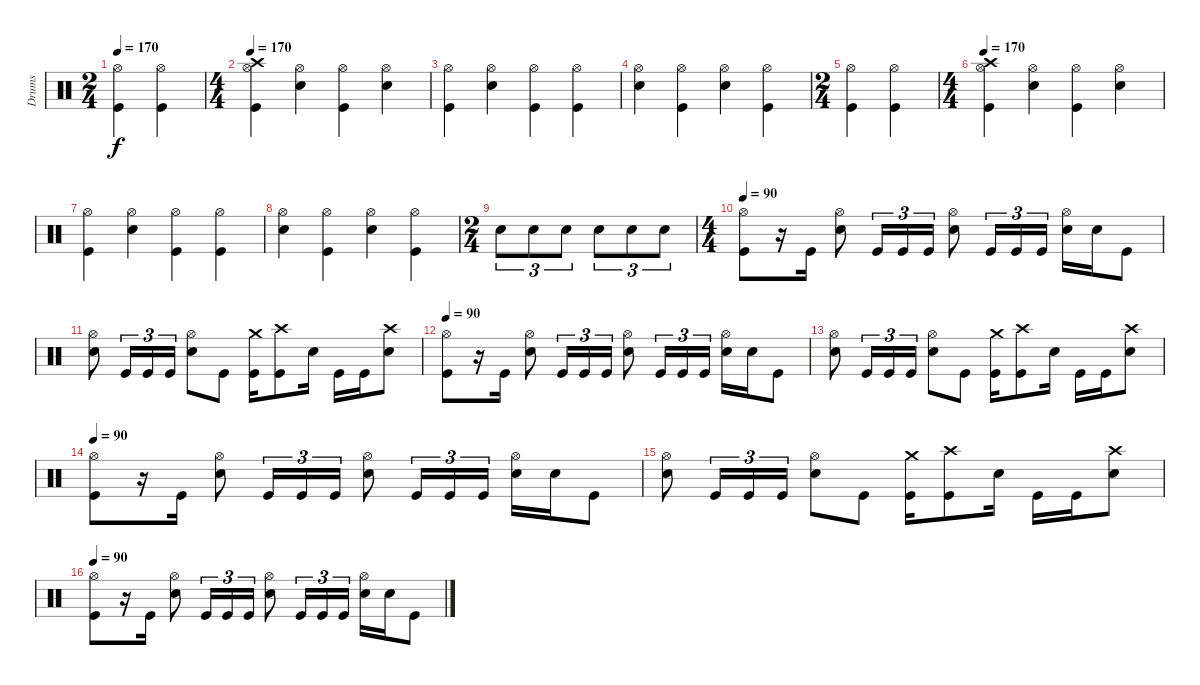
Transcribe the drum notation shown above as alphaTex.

\track ("Drums" "Drums") {instrument percussion}
\staff {score}
\articulation defaults
\ts (2 4)
\tempo 170
\clef neutral
\ks c
("Kick (hit)" "Hi-Hat (open)").4{dy f} ("Kick (hit)" "Hi-Hat (open)").4 |
\ts (4 4)
\tempo 170
("Kick (hit)" "Hi-Hat (open)" "Crash high (hit)").4 ("Snare (hit) 2" "Hi-Hat (open)").4 ("Kick (hit)" "Hi-Hat (open)").4 ("Snare (hit) 2" "Hi-Hat (open)").4 |
("Kick (hit)" "Hi-Hat (open)").4 ("Snare (hit) 2" "Hi-Hat (open)").4 ("Kick (hit)" "Hi-Hat (open)").4 ("Kick (hit)" "Hi-Hat (open)").4 |
("Snare (hit) 2" "Hi-Hat (open)").4 ("Kick (hit)" "Hi-Hat (open)").4 ("Snare (hit) 2" "Hi-Hat (open)").4 ("Kick (hit)" "Hi-Hat (open)").4 |
\ts (2 4)
("Kick (hit)" "Hi-Hat (open)").4 ("Kick (hit)" "Hi-Hat (open)").4 |
\ts (4 4)
\tempo 170
("Kick (hit)" "Hi-Hat (open)" "Crash high (hit)").4 ("Snare (hit) 2" "Hi-Hat (open)").4 ("Kick (hit)" "Hi-Hat (open)").4 ("Snare (hit) 2" "Hi-Hat (open)").4 |
("Kick (hit)" "Hi-Hat (open)").4 ("Snare (hit) 2" "Hi-Hat (open)").4 ("Kick (hit)" "Hi-Hat (open)").4 ("Kick (hit)" "Hi-Hat (open)").4 |
("Snare (hit) 2" "Hi-Hat (open)").4 ("Kick (hit)" "Hi-Hat (open)").4 ("Snare (hit) 2" "Hi-Hat (open)").4 ("Kick (hit)" "Hi-Hat (open)").4 |
\ts (2 4)
"Snare (hit) 2".8{tu (3 2)} "Snare (hit) 2".8{tu (3 2)} "Snare (hit) 2".8{tu (3 2)} "Snare (hit) 2".8{tu (3 2)} "Snare (hit) 2".8{tu (3 2)} "Snare (hit) 2".8{tu (3 2)} |
\ts (4 4)
\tempo 90
("Kick (hit)" "Hi-Hat (open)").8 r.16 "Kick (hit)".16 ("Snare (hit) 2" "Hi-Hat (open)").8 "Kick (hit)".16{tu (3 2)} "Kick (hit)".16{tu (3 2)} "Kick (hit)".16{tu (3 2)} ("Snare (hit) 2" "Hi-Hat (open)").8 "Kick (hit)".16{tu (3 2)} "Kick (hit)".16{tu (3 2)} "Kick (hit)".16{tu (3 2)} ("Snare (hit) 2" "Hi-Hat (open)").16 "Snare (hit) 2".16 "Kick (hit)".8 |
("Snare (hit) 2" "Hi-Hat (open)").8 "Kick (hit)".16{tu (3 2)} "Kick (hit)".16{tu (3 2)} "Kick (hit)".16{tu (3 2)} ("Snare (hit) 2" "Hi-Hat (open)").8 "Kick (hit)".8 ("Kick (hit)" "Crash medium (hit)").16 ("Kick (hit)" "Crash high (hit)").8 "Snare (hit) 2".16 "Kick (hit)".16 "Kick (hit)".16 ("Snare (hit) 2" "Crash high (hit)").8 |
\tempo 90
("Kick (hit)" "Hi-Hat (open)").8 r.16 "Kick (hit)".16 ("Snare (hit) 2" "Hi-Hat (open)").8 "Kick (hit)".16{tu (3 2)} "Kick (hit)".16{tu (3 2)} "Kick (hit)".16{tu (3 2)} ("Snare (hit) 2" "Hi-Hat (open)").8 "Kick (hit)".16{tu (3 2)} "Kick (hit)".16{tu (3 2)} "Kick (hit)".16{tu (3 2)} ("Snare (hit) 2" "Hi-Hat (open)").16 "Snare (hit) 2".16 "Kick (hit)".8 |
("Snare (hit) 2" "Hi-Hat (open)").8 "Kick (hit)".16{tu (3 2)} "Kick (hit)".16{tu (3 2)} "Kick (hit)".16{tu (3 2)} ("Snare (hit) 2" "Hi-Hat (open)").8 "Kick (hit)".8 ("Kick (hit)" "Crash medium (hit)").16 ("Kick (hit)" "Crash high (hit)").8 "Snare (hit) 2".16 "Kick (hit)".16 "Kick (hit)".16 ("Snare (hit) 2" "Crash high (hit)").8 |
\tempo 90
("Kick (hit)" "Hi-Hat (open)").8 r.16 "Kick (hit)".16 ("Snare (hit) 2" "Hi-Hat (open)").8 "Kick (hit)".16{tu (3 2)} "Kick (hit)".16{tu (3 2)} "Kick (hit)".16{tu (3 2)} ("Snare (hit) 2" "Hi-Hat (open)").8 "Kick (hit)".16{tu (3 2)} "Kick (hit)".16{tu (3 2)} "Kick (hit)".16{tu (3 2)} ("Snare (hit) 2" "Hi-Hat (open)").16 "Snare (hit) 2".16 "Kick (hit)".8 |
("Snare (hit) 2" "Hi-Hat (open)").8 "Kick (hit)".16{tu (3 2)} "Kick (hit)".16{tu (3 2)} "Kick (hit)".16{tu (3 2)} ("Snare (hit) 2" "Hi-Hat (open)").8 "Kick (hit)".8 ("Kick (hit)" "Crash medium (hit)").16 ("Kick (hit)" "Crash high (hit)").8 "Snare (hit) 2".16 "Kick (hit)".16 "Kick (hit)".16 ("Snare (hit) 2" "Crash high (hit)").8 |
\tempo 90
("Kick (hit)" "Hi-Hat (open)").8 r.16 "Kick (hit)".16 ("Snare (hit) 2" "Hi-Hat (open)").8 "Kick (hit)".16{tu (3 2)} "Kick (hit)".16{tu (3 2)} "Kick (hit)".16{tu (3 2)} ("Snare (hit) 2" "Hi-Hat (open)").8 "Kick (hit)".16{tu (3 2)} "Kick (hit)".16{tu (3 2)} "Kick (hit)".16{tu (3 2)} ("Snare (hit) 2" "Hi-Hat (open)").16 "Snare (hit) 2".16 "Kick (hit)".8
